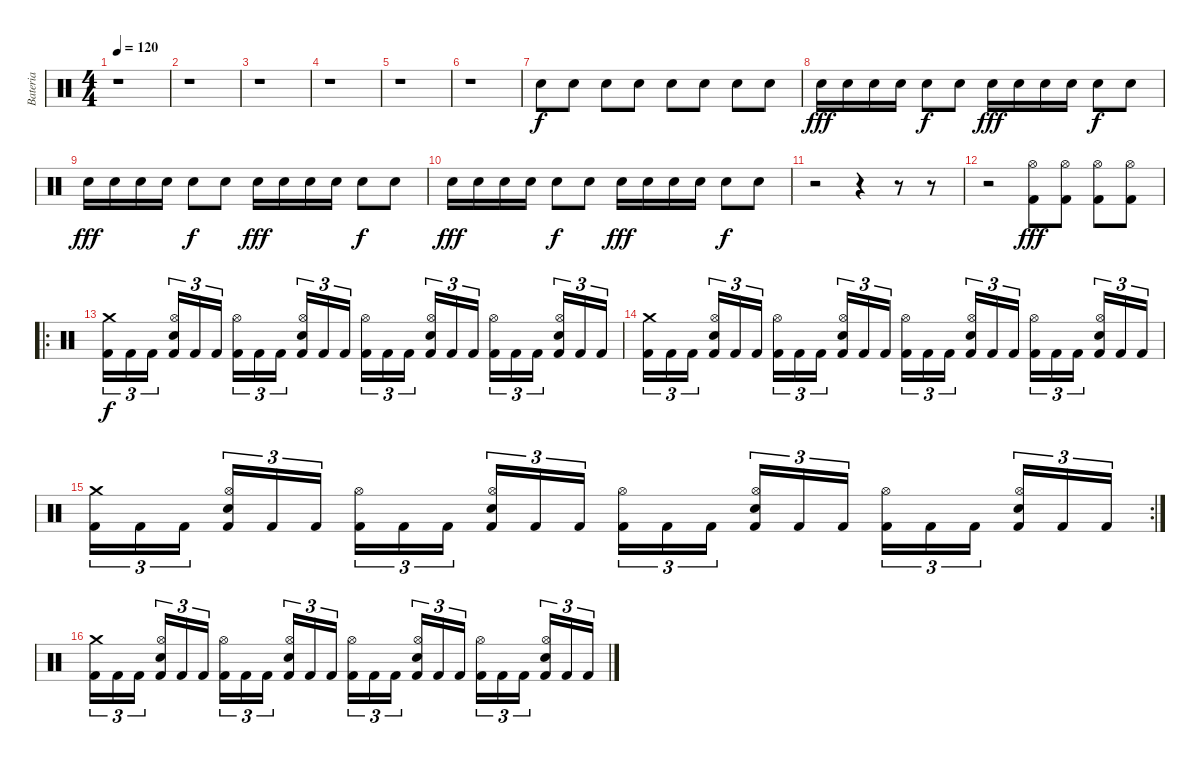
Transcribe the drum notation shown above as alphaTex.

\track ("Bateria" "Bateria") {instrument percussion}
\staff {score}
\articulation defaults
\ts (4 4)
\tempo 120
\clef neutral
\ks c
r.1{dy f} |
r.1 |
r.1 |
r.1 |
r.1 |
r.1 |
"Electric Snare (hit)".8{volume 14} "Electric Snare (hit)".8 "Electric Snare (hit)".8 "Electric Snare (hit)".8 "Electric Snare (hit)".8 "Electric Snare (hit)".8 "Electric Snare (hit)".8 "Electric Snare (hit)".8 |
"Electric Snare (hit)".16{dy fff} "Electric Snare (hit)".16 "Electric Snare (hit)".16 "Electric Snare (hit)".16 "Electric Snare (hit)".8{dy f} "Electric Snare (hit)".8 "Electric Snare (hit)".16{dy fff} "Electric Snare (hit)".16 "Electric Snare (hit)".16 "Electric Snare (hit)".16 "Electric Snare (hit)".8{dy f} "Electric Snare (hit)".8 |
"Electric Snare (hit)".16{dy fff} "Electric Snare (hit)".16 "Electric Snare (hit)".16 "Electric Snare (hit)".16 "Electric Snare (hit)".8{dy f} "Electric Snare (hit)".8 "Electric Snare (hit)".16{dy fff} "Electric Snare (hit)".16 "Electric Snare (hit)".16 "Electric Snare (hit)".16 "Electric Snare (hit)".8{dy f} "Electric Snare (hit)".8 |
"Electric Snare (hit)".16{dy fff} "Electric Snare (hit)".16 "Electric Snare (hit)".16 "Electric Snare (hit)".16 "Electric Snare (hit)".8{dy f} "Electric Snare (hit)".8 "Electric Snare (hit)".16{dy fff} "Electric Snare (hit)".16 "Electric Snare (hit)".16 "Electric Snare (hit)".16 "Electric Snare (hit)".8{dy f} "Electric Snare (hit)".8 |
r.2 r.4 r.8 r.8 |
r.2 ("Kick (hit) 2" "Hi-Hat (open)").8{dy fff} ("Kick (hit) 2" "Hi-Hat (open)").8 ("Kick (hit) 2" "Hi-Hat (open)").8 ("Kick (hit) 2" "Hi-Hat (open)").8 |
\ro
("Kick (hit) 2" "Crash medium (hit)").16{tu (3 2) dy f} "Kick (hit) 2".16{tu (3 2)} "Kick (hit) 2".16{tu (3 2)} ("Kick (hit) 2" "Snare (hit) 2" "Hi-Hat (open)").16{tu (3 2)} "Kick (hit) 2".16{tu (3 2)} "Kick (hit) 2".16{tu (3 2)} ("Kick (hit) 2" "Hi-Hat (open)").16{tu (3 2)} "Kick (hit) 2".16{tu (3 2)} "Kick (hit) 2".16{tu (3 2)} ("Kick (hit) 2" "Snare (hit) 2" "Hi-Hat (open)").16{tu (3 2)} "Kick (hit) 2".16{tu (3 2)} "Kick (hit) 2".16{tu (3 2)} ("Kick (hit) 2" "Hi-Hat (open)").16{tu (3 2)} "Kick (hit) 2".16{tu (3 2)} "Kick (hit) 2".16{tu (3 2)} ("Kick (hit) 2" "Snare (hit) 2" "Hi-Hat (open)").16{tu (3 2)} "Kick (hit) 2".16{tu (3 2)} "Kick (hit) 2".16{tu (3 2)} ("Kick (hit) 2" "Hi-Hat (open)").16{tu (3 2)} "Kick (hit) 2".16{tu (3 2)} "Kick (hit) 2".16{tu (3 2)} ("Kick (hit) 2" "Snare (hit) 2" "Hi-Hat (open)").16{tu (3 2)} "Kick (hit) 2".16{tu (3 2)} "Kick (hit) 2".16{tu (3 2)} |
("Kick (hit) 2" "Crash medium (hit)").16{tu (3 2)} "Kick (hit) 2".16{tu (3 2)} "Kick (hit) 2".16{tu (3 2)} ("Kick (hit) 2" "Snare (hit) 2" "Hi-Hat (open)").16{tu (3 2)} "Kick (hit) 2".16{tu (3 2)} "Kick (hit) 2".16{tu (3 2)} ("Kick (hit) 2" "Hi-Hat (open)").16{tu (3 2)} "Kick (hit) 2".16{tu (3 2)} "Kick (hit) 2".16{tu (3 2)} ("Kick (hit) 2" "Snare (hit) 2" "Hi-Hat (open)").16{tu (3 2)} "Kick (hit) 2".16{tu (3 2)} "Kick (hit) 2".16{tu (3 2)} ("Kick (hit) 2" "Hi-Hat (open)").16{tu (3 2)} "Kick (hit) 2".16{tu (3 2)} "Kick (hit) 2".16{tu (3 2)} ("Kick (hit) 2" "Snare (hit) 2" "Hi-Hat (open)").16{tu (3 2)} "Kick (hit) 2".16{tu (3 2)} "Kick (hit) 2".16{tu (3 2)} ("Kick (hit) 2" "Hi-Hat (open)").16{tu (3 2)} "Kick (hit) 2".16{tu (3 2)} "Kick (hit) 2".16{tu (3 2)} ("Kick (hit) 2" "Snare (hit) 2" "Hi-Hat (open)").16{tu (3 2)} "Kick (hit) 2".16{tu (3 2)} "Kick (hit) 2".16{tu (3 2)} |
\rc 2
("Kick (hit) 2" "Crash medium (hit)").16{tu (3 2)} "Kick (hit) 2".16{tu (3 2)} "Kick (hit) 2".16{tu (3 2)} ("Kick (hit) 2" "Snare (hit) 2" "Hi-Hat (open)").16{tu (3 2)} "Kick (hit) 2".16{tu (3 2)} "Kick (hit) 2".16{tu (3 2)} ("Kick (hit) 2" "Hi-Hat (open)").16{tu (3 2)} "Kick (hit) 2".16{tu (3 2)} "Kick (hit) 2".16{tu (3 2)} ("Kick (hit) 2" "Snare (hit) 2" "Hi-Hat (open)").16{tu (3 2)} "Kick (hit) 2".16{tu (3 2)} "Kick (hit) 2".16{tu (3 2)} ("Kick (hit) 2" "Hi-Hat (open)").16{tu (3 2)} "Kick (hit) 2".16{tu (3 2)} "Kick (hit) 2".16{tu (3 2)} ("Kick (hit) 2" "Snare (hit) 2" "Hi-Hat (open)").16{tu (3 2)} "Kick (hit) 2".16{tu (3 2)} "Kick (hit) 2".16{tu (3 2)} ("Kick (hit) 2" "Hi-Hat (open)").16{tu (3 2)} "Kick (hit) 2".16{tu (3 2)} "Kick (hit) 2".16{tu (3 2)} ("Kick (hit) 2" "Snare (hit) 2" "Hi-Hat (open)").16{tu (3 2)} "Kick (hit) 2".16{tu (3 2)} "Kick (hit) 2".16{tu (3 2)} |
("Kick (hit) 2" "Crash medium (hit)").16{tu (3 2)} "Kick (hit) 2".16{tu (3 2)} "Kick (hit) 2".16{tu (3 2)} ("Kick (hit) 2" "Snare (hit) 2" "Hi-Hat (open)").16{tu (3 2)} "Kick (hit) 2".16{tu (3 2)} "Kick (hit) 2".16{tu (3 2)} ("Kick (hit) 2" "Hi-Hat (open)").16{tu (3 2)} "Kick (hit) 2".16{tu (3 2)} "Kick (hit) 2".16{tu (3 2)} ("Kick (hit) 2" "Snare (hit) 2" "Hi-Hat (open)").16{tu (3 2)} "Kick (hit) 2".16{tu (3 2)} "Kick (hit) 2".16{tu (3 2)} ("Kick (hit) 2" "Hi-Hat (open)").16{tu (3 2)} "Kick (hit) 2".16{tu (3 2)} "Kick (hit) 2".16{tu (3 2)} ("Kick (hit) 2" "Snare (hit) 2" "Hi-Hat (open)").16{tu (3 2)} "Kick (hit) 2".16{tu (3 2)} "Kick (hit) 2".16{tu (3 2)} ("Kick (hit) 2" "Hi-Hat (open)").16{tu (3 2)} "Kick (hit) 2".16{tu (3 2)} "Kick (hit) 2".16{tu (3 2)} ("Kick (hit) 2" "Snare (hit) 2" "Hi-Hat (open)").16{tu (3 2)} "Kick (hit) 2".16{tu (3 2)} "Kick (hit) 2".16{tu (3 2)}
